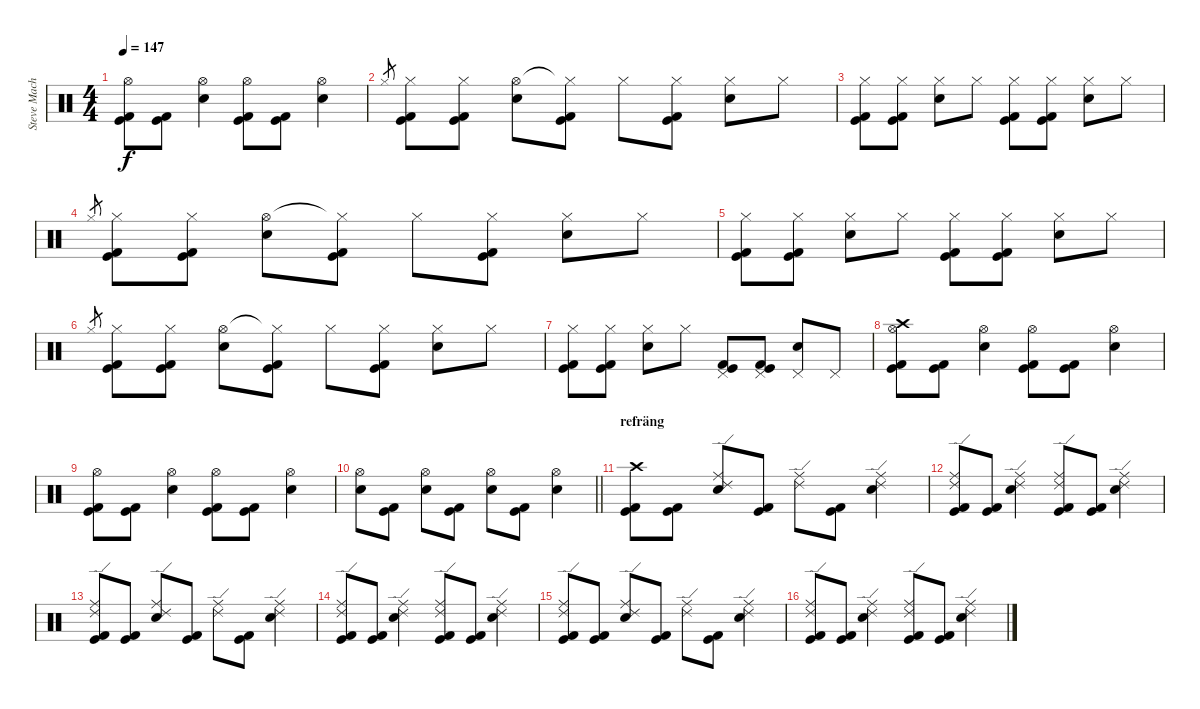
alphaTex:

\track ("Steve Machine West" "Steve Mach") {instrument percussion}
\staff {score}
\articulation defaults
\ts (4 4)
\tempo 147
\clef neutral
\ks c
("Hi-Hat (open)" "Kick (hit)" "Kick (hit) 2").8{dy f} ("Kick (hit)" "Kick (hit) 2").8 ("Hi-Hat (open)" "Electric Snare (hit)").4 ("Hi-Hat (open)" "Kick (hit)" "Kick (hit) 2").8 ("Kick (hit)" "Kick (hit) 2").8 ("Hi-Hat (open)" "Electric Snare (hit)").4 |
"Hi-Hat (closed)".8{gr} ("Hi-Hat (closed)" "Kick (hit)" "Kick (hit) 2").8 ("Hi-Hat (closed)" "Kick (hit)" "Kick (hit) 2").8 ("Hi-Hat (open)" "Electric Snare (hit)").8 ("Hi-Hat (closed)"{t} "Kick (hit)" "Kick (hit) 2").8 "Hi-Hat (closed)".8 ("Hi-Hat (closed)" "Kick (hit)" "Kick (hit) 2").8 ("Hi-Hat (closed)" "Electric Snare (hit)").8 "Hi-Hat (closed)".8 |
("Hi-Hat (closed)" "Kick (hit)" "Kick (hit) 2").8 ("Hi-Hat (closed)" "Kick (hit)" "Kick (hit) 2").8 ("Hi-Hat (closed)" "Electric Snare (hit)").8 "Hi-Hat (closed)".8 ("Hi-Hat (closed)" "Kick (hit)" "Kick (hit) 2").8 ("Hi-Hat (closed)" "Kick (hit)" "Kick (hit) 2").8 ("Hi-Hat (closed)" "Electric Snare (hit)").8 "Hi-Hat (closed)".8 |
"Hi-Hat (closed)".8{gr} ("Hi-Hat (closed)" "Kick (hit)" "Kick (hit) 2").8 ("Hi-Hat (closed)" "Kick (hit)" "Kick (hit) 2").8 ("Hi-Hat (open)" "Electric Snare (hit)").8 ("Hi-Hat (closed)"{t} "Kick (hit)" "Kick (hit) 2").8 "Hi-Hat (closed)".8 ("Hi-Hat (closed)" "Kick (hit)" "Kick (hit) 2").8 ("Hi-Hat (closed)" "Electric Snare (hit)").8 "Hi-Hat (closed)".8 |
("Hi-Hat (closed)" "Kick (hit)" "Kick (hit) 2").8 ("Hi-Hat (closed)" "Kick (hit)" "Kick (hit) 2").8 ("Hi-Hat (closed)" "Electric Snare (hit)").8 "Hi-Hat (closed)".8 ("Hi-Hat (closed)" "Kick (hit)" "Kick (hit) 2").8 ("Hi-Hat (closed)" "Kick (hit)" "Kick (hit) 2").8 ("Hi-Hat (closed)" "Electric Snare (hit)").8 "Hi-Hat (closed)".8 |
"Hi-Hat (closed)".8{gr} ("Hi-Hat (closed)" "Kick (hit)" "Kick (hit) 2").8 ("Hi-Hat (closed)" "Kick (hit)" "Kick (hit) 2").8 ("Hi-Hat (open)" "Electric Snare (hit)").8 ("Hi-Hat (closed)"{t} "Kick (hit)" "Kick (hit) 2").8 "Hi-Hat (closed)".8 ("Hi-Hat (closed)" "Kick (hit)" "Kick (hit) 2").8 ("Hi-Hat (closed)" "Electric Snare (hit)").8 "Hi-Hat (closed)".8 |
("Hi-Hat (closed)" "Kick (hit)" "Kick (hit) 2").8 ("Hi-Hat (closed)" "Kick (hit)" "Kick (hit) 2").8 ("Hi-Hat (closed)" "Electric Snare (hit)").8 "Hi-Hat (closed)".8 ("Pedal Hi-Hat (hit)" "Kick (hit)" "Kick (hit) 2").8 ("Pedal Hi-Hat (hit)" "Kick (hit)" "Kick (hit) 2").8 ("Pedal Hi-Hat (hit)" "Electric Snare (hit)").8 "Pedal Hi-Hat (hit)".8 |
("Crash high (hit)" "Hi-Hat (open)" "Kick (hit)" "Kick (hit) 2").8 ("Kick (hit)" "Kick (hit) 2").8 ("Hi-Hat (open)" "Electric Snare (hit)").4 ("Hi-Hat (open)" "Kick (hit)" "Kick (hit) 2").8 ("Kick (hit)" "Kick (hit) 2").8 ("Hi-Hat (open)" "Electric Snare (hit)").4 |
("Hi-Hat (open)" "Kick (hit)" "Kick (hit) 2").8 ("Kick (hit)" "Kick (hit) 2").8 ("Hi-Hat (open)" "Electric Snare (hit)").4 ("Hi-Hat (open)" "Kick (hit)" "Kick (hit) 2").8 ("Kick (hit)" "Kick (hit) 2").8 ("Hi-Hat (open)" "Electric Snare (hit)").4 |
\barLineRight lightlight
("Hi-Hat (open)" "Electric Snare (hit)").8 ("Kick (hit)" "Kick (hit) 2").8 ("Hi-Hat (open)" "Electric Snare (hit)").8 ("Kick (hit)" "Kick (hit) 2").8 ("Hi-Hat (open)" "Electric Snare (hit)").8 ("Kick (hit)" "Kick (hit) 2").8 ("Hi-Hat (open)" "Electric Snare (hit)").4 |
\section ("" "refräng")
("Crash high (hit)" "Kick (hit)" "Kick (hit) 2").8 ("Kick (hit)" "Kick (hit) 2").8 ("Ride (middle)" "Ride (edge) 2" "Electric Snare (hit)").8 ("Kick (hit)" "Kick (hit) 2").8 ("Ride (middle)" "Ride (edge) 2").8 ("Kick (hit)" "Kick (hit) 2").8 ("Ride (middle)" "Ride (edge) 2" "Electric Snare (hit)").4 |
("Ride (middle)" "Ride (edge) 2" "Kick (hit)" "Kick (hit) 2").8 ("Kick (hit)" "Kick (hit) 2").8 ("Ride (middle)" "Ride (edge) 2" "Electric Snare (hit)").4 ("Ride (middle)" "Ride (edge) 2" "Kick (hit)" "Kick (hit) 2").8 ("Kick (hit)" "Kick (hit) 2").8 ("Ride (middle)" "Ride (edge) 2" "Electric Snare (hit)").4 |
("Ride (middle)" "Ride (edge) 2" "Kick (hit)" "Kick (hit) 2").8 ("Kick (hit)" "Kick (hit) 2").8 ("Ride (middle)" "Ride (edge) 2" "Electric Snare (hit)").8 ("Kick (hit)" "Kick (hit) 2").8 ("Ride (middle)" "Ride (edge) 2").8 ("Kick (hit)" "Kick (hit) 2").8 ("Ride (middle)" "Ride (edge) 2" "Electric Snare (hit)").4 |
("Ride (middle)" "Ride (edge) 2" "Kick (hit)" "Kick (hit) 2").8 ("Kick (hit)" "Kick (hit) 2").8 ("Ride (middle)" "Ride (edge) 2" "Electric Snare (hit)").4 ("Ride (middle)" "Ride (edge) 2" "Kick (hit)" "Kick (hit) 2").8 ("Kick (hit)" "Kick (hit) 2").8 ("Ride (middle)" "Ride (edge) 2" "Electric Snare (hit)").4 |
("Ride (middle)" "Ride (edge) 2" "Kick (hit)" "Kick (hit) 2").8 ("Kick (hit)" "Kick (hit) 2").8 ("Ride (middle)" "Ride (edge) 2" "Electric Snare (hit)").8 ("Kick (hit)" "Kick (hit) 2").8 ("Ride (middle)" "Ride (edge) 2").8 ("Kick (hit)" "Kick (hit) 2").8 ("Ride (middle)" "Ride (edge) 2" "Electric Snare (hit)").4 |
("Ride (middle)" "Ride (edge) 2" "Kick (hit)" "Kick (hit) 2").8 ("Kick (hit)" "Kick (hit) 2").8 ("Ride (middle)" "Ride (edge) 2" "Electric Snare (hit)").4 ("Ride (middle)" "Ride (edge) 2" "Kick (hit)" "Kick (hit) 2").8 ("Kick (hit)" "Kick (hit) 2").8 ("Ride (middle)" "Ride (edge) 2" "Electric Snare (hit)").4
